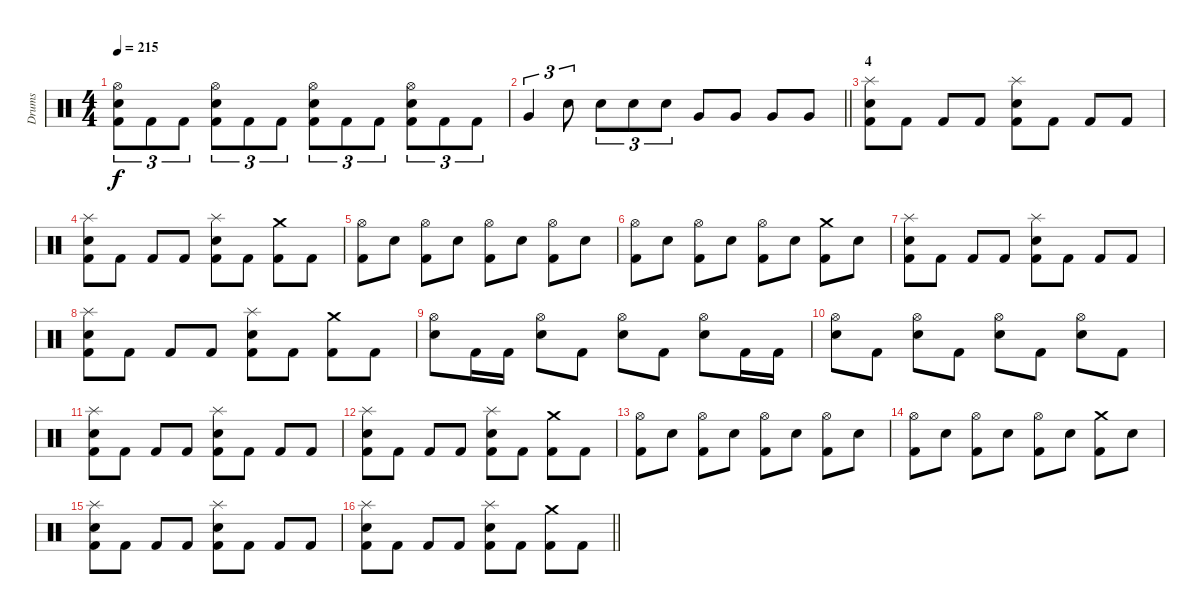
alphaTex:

\track ("Drums" "Drums") {instrument percussion}
\staff {score}
\articulation defaults
\ts (4 4)
\tempo 215
\clef neutral
\ks c
("Hi-Hat (open)" "Electric Snare (hit)" "Kick (hit) 2").8{tu (3 2) dy f} "Kick (hit) 2".8{tu (3 2)} "Kick (hit) 2".8{tu (3 2)} ("Hi-Hat (open)" "Electric Snare (hit)" "Kick (hit) 2").8{tu (3 2)} "Kick (hit) 2".8{tu (3 2)} "Kick (hit) 2".8{tu (3 2)} ("Hi-Hat (open)" "Electric Snare (hit)" "Kick (hit) 2").8{tu (3 2)} "Kick (hit) 2".8{tu (3 2)} "Kick (hit) 2".8{tu (3 2)} ("Hi-Hat (open)" "Electric Snare (hit)" "Kick (hit) 2").8{tu (3 2)} "Kick (hit) 2".8{tu (3 2)} "Kick (hit) 2".8{tu (3 2)} |
\barLineRight lightlight "Very Low Tom (hit)".4{tu (3 2)} "Electric Snare (hit)".8{tu (3 2)} "Electric Snare (hit)".8{tu (3 2)} "Electric Snare (hit)".8{tu (3 2)} "Electric Snare (hit)".8{tu (3 2)} "Very Low Tom (hit)".8 "Very Low Tom (hit)".8 "Very Low Tom (hit)".8 "Very Low Tom (hit)".8
|
\section ("" "4")
("Splash (hit)" "Electric Snare (hit)" "Kick (hit) 2").8 "Kick (hit) 2".8 "Kick (hit) 2".8 "Kick (hit) 2".8 ("Splash (hit)" "Electric Snare (hit)" "Kick (hit) 2").8 "Kick (hit) 2".8 "Kick (hit) 2".8 "Kick (hit) 2".8 |
("Splash (hit)" "Electric Snare (hit)" "Kick (hit) 2").8 "Kick (hit) 2".8 "Kick (hit) 2".8 "Kick (hit) 2".8 ("Splash (hit)" "Electric Snare (hit)" "Kick (hit) 2").8 "Kick (hit) 2".8 ("Crash medium (hit)" "Kick (hit) 2").8 "Kick (hit) 2".8 |
("Hi-Hat (open)" "Kick (hit) 2").8 "Electric Snare (hit)".8 ("Hi-Hat (open)" "Kick (hit) 2").8 "Electric Snare (hit)".8 ("Hi-Hat (open)" "Kick (hit) 2").8 "Electric Snare (hit)".8 ("Hi-Hat (open)" "Kick (hit) 2").8 "Electric Snare (hit)".8 |
("Hi-Hat (open)" "Kick (hit) 2").8 "Electric Snare (hit)".8 ("Hi-Hat (open)" "Kick (hit) 2").8 "Electric Snare (hit)".8 ("Hi-Hat (open)" "Kick (hit) 2").8 "Electric Snare (hit)".8 ("Crash medium (hit)" "Kick (hit) 2").8 "Electric Snare (hit)".8 |
("Splash (hit)" "Electric Snare (hit)" "Kick (hit) 2").8 "Kick (hit) 2".8 "Kick (hit) 2".8 "Kick (hit) 2".8 ("Splash (hit)" "Electric Snare (hit)" "Kick (hit) 2").8 "Kick (hit) 2".8 "Kick (hit) 2".8 "Kick (hit) 2".8 |
("Splash (hit)" "Electric Snare (hit)" "Kick (hit) 2").8 "Kick (hit) 2".8 "Kick (hit) 2".8 "Kick (hit) 2".8 ("Splash (hit)" "Electric Snare (hit)" "Kick (hit) 2").8 "Kick (hit) 2".8 ("Crash medium (hit)" "Kick (hit) 2").8 "Kick (hit) 2".8 |
("Hi-Hat (open)" "Electric Snare (hit)").8 "Kick (hit) 2".16 "Kick (hit) 2".16 ("Hi-Hat (open)" "Electric Snare (hit)").8 "Kick (hit) 2".8 ("Hi-Hat (open)" "Electric Snare (hit)").8 "Kick (hit) 2".8 ("Hi-Hat (open)" "Electric Snare (hit)").8 "Kick (hit) 2".16 "Kick (hit) 2".16 |
("Hi-Hat (open)" "Electric Snare (hit)").8 "Kick (hit) 2".8 ("Hi-Hat (open)" "Electric Snare (hit)").8 "Kick (hit) 2".8 ("Hi-Hat (open)" "Electric Snare (hit)").8 "Kick (hit) 2".8 ("Hi-Hat (open)" "Electric Snare (hit)").8 "Kick (hit) 2".8 |
("Splash (hit)" "Electric Snare (hit)" "Kick (hit) 2").8 "Kick (hit) 2".8 "Kick (hit) 2".8 "Kick (hit) 2".8 ("Splash (hit)" "Electric Snare (hit)" "Kick (hit) 2").8 "Kick (hit) 2".8 "Kick (hit) 2".8 "Kick (hit) 2".8 |
("Splash (hit)" "Electric Snare (hit)" "Kick (hit) 2").8 "Kick (hit) 2".8 "Kick (hit) 2".8 "Kick (hit) 2".8 ("Splash (hit)" "Electric Snare (hit)" "Kick (hit) 2").8 "Kick (hit) 2".8 ("Crash medium (hit)" "Kick (hit) 2").8 "Kick (hit) 2".8 |
("Hi-Hat (open)" "Kick (hit) 2").8 "Electric Snare (hit)".8 ("Hi-Hat (open)" "Kick (hit) 2").8 "Electric Snare (hit)".8 ("Hi-Hat (open)" "Kick (hit) 2").8 "Electric Snare (hit)".8 ("Hi-Hat (open)" "Kick (hit) 2").8 "Electric Snare (hit)".8 |
("Hi-Hat (open)" "Kick (hit) 2").8 "Electric Snare (hit)".8 ("Hi-Hat (open)" "Kick (hit) 2").8 "Electric Snare (hit)".8 ("Hi-Hat (open)" "Kick (hit) 2").8 "Electric Snare (hit)".8 ("Crash medium (hit)" "Kick (hit) 2").8 "Electric Snare (hit)".8 |
("Splash (hit)" "Electric Snare (hit)" "Kick (hit) 2").8 "Kick (hit) 2".8 "Kick (hit) 2".8 "Kick (hit) 2".8 ("Splash (hit)" "Electric Snare (hit)" "Kick (hit) 2").8 "Kick (hit) 2".8 "Kick (hit) 2".8 "Kick (hit) 2".8 |
\barLineRight lightlight
("Splash (hit)" "Electric Snare (hit)" "Kick (hit) 2").8 "Kick (hit) 2".8 "Kick (hit) 2".8 "Kick (hit) 2".8 ("Splash (hit)" "Electric Snare (hit)" "Kick (hit) 2").8 "Kick (hit) 2".8 ("Crash medium (hit)" "Kick (hit) 2").8 "Kick (hit) 2".8
